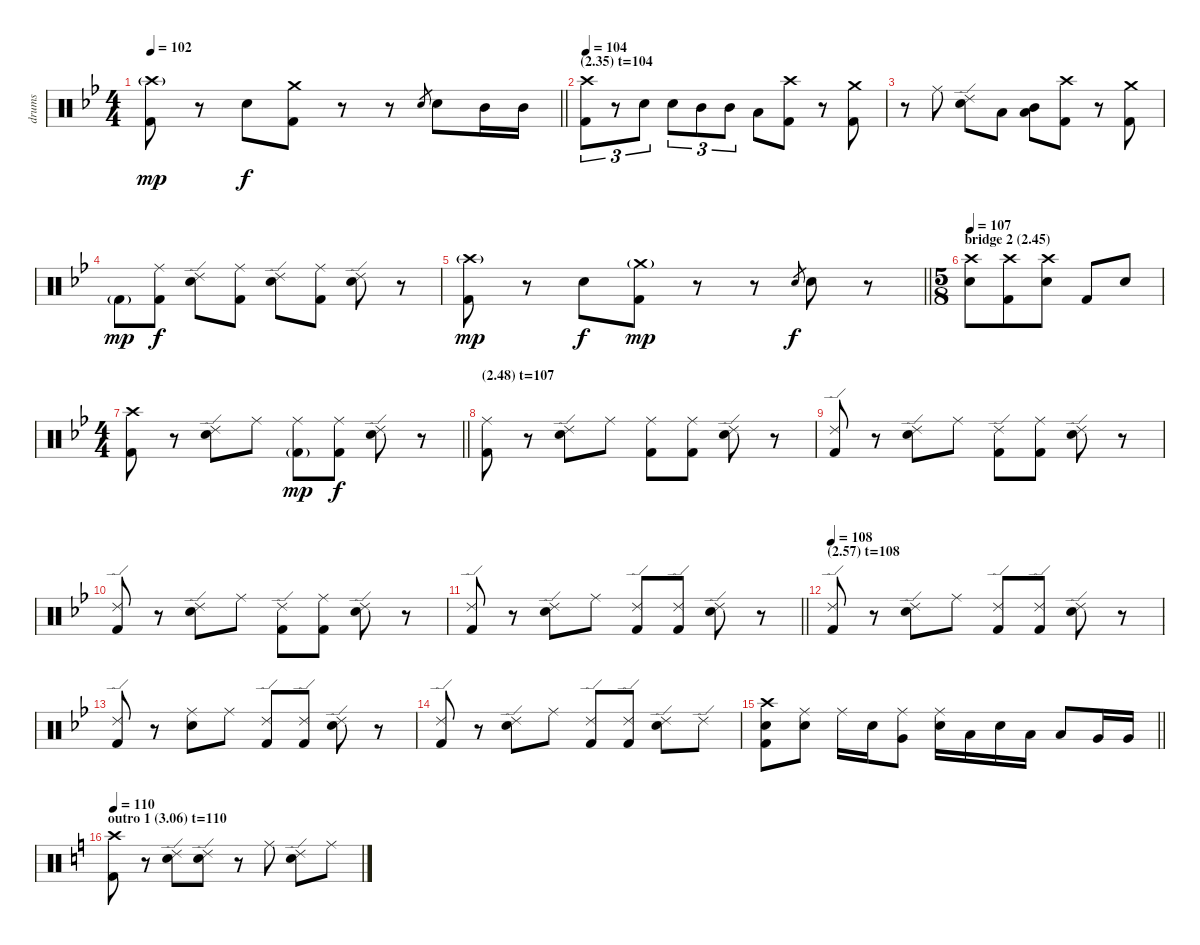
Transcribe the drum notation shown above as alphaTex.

\track ("drums" "drums") {instrument percussion}
\staff {score}
\articulation defaults
\ts (4 4)
\tempo 102
\clef neutral
\barLineRight lightlight
\ks bb
("Crash high (hit)"{g} "Kick (hit) 2").8{dy mp} r.8 "Electric Snare (hit)".8{dy f} ("Crash medium (hit)" "Kick (hit) 2").8 r.8 r.8 "Electric Snare (hit)".8{gr} "Electric Snare (hit)".8 "Mid Tom (hit)".16 "Mid Tom (hit)".16 |
\section ("" "(2.35) t=104")
\tempo 104
("Crash high (hit)" "Kick (hit) 2").8{tu (3 2)} r.8{tu (3 2)} "Electric Snare (hit)".8{tu (3 2)} "Electric Snare (hit)".8{tu (3 2)} "Mid Tom (hit)".8{tu (3 2)} "Mid Tom (hit)".8{tu (3 2)} "Low Tom (hit)".8 ("Crash high (hit)" "Kick (hit) 2").8 r.8 ("Crash medium (hit)" "Kick (hit) 2").8 |
r.8 "Ride (middle)".8 ("Ride (edge) 2" "Electric Snare (hit)").8 "Low Tom (hit)".8 ("Mid Tom (hit)" "Low Tom (hit)").8 ("Crash high (hit)" "Kick (hit) 2").8 r.8 ("Crash medium (hit)" "Kick (hit) 2").8 |
"Kick (hit) 2"{g}.8{dy mp} ("Ride (middle)" "Kick (hit) 2").8{dy f} ("Ride (edge) 2" "Electric Snare (hit)").8 ("Ride (middle)" "Kick (hit) 2").8 ("Ride (edge) 2" "Electric Snare (hit)").8 ("Ride (middle)" "Kick (hit) 2").8 ("Ride (edge) 2" "Electric Snare (hit)").8 r.8 |
\barLineRight lightlight
("Crash high (hit)"{g} "Kick (hit) 2").8{dy mp} r.8 "Electric Snare (hit)".8{dy f} ("Crash medium (hit)"{g} "Kick (hit) 2").8{dy mp} r.8 r.8 "Electric Snare (hit)".8{gr dy f} "Electric Snare (hit)".8 r.8 |
\ts (5 8)
\section ("" "bridge 2 (2.45)")
\tempo 107
("Crash high (hit)" "Electric Snare (hit)").8 ("Crash high (hit)" "Kick (hit) 2").8 ("Crash high (hit)" "Electric Snare (hit)").8 "Kick (hit) 2".8 "Electric Snare (hit)".8 |
\ts (4 4)
\barLineRight lightlight
("Crash high (hit)" "Kick (hit) 2").8 r.8 ("Ride (edge) 2" "Electric Snare (hit)").8 "Ride (middle)".8 ("Ride (middle)" "Kick (hit) 2"{g}).8{dy mp} ("Ride (middle)" "Kick (hit) 2").8{dy f} ("Ride (edge) 2" "Electric Snare (hit)").8 r.8 |
\section ("" "(2.48) t=107")
("Ride (middle)" "Kick (hit) 2").8 r.8 ("Ride (edge) 2" "Electric Snare (hit)").8 "Ride (middle)".8 ("Ride (middle)" "Kick (hit) 2").8 ("Ride (middle)" "Kick (hit) 2").8 ("Ride (edge) 2" "Electric Snare (hit)").8 r.8 |
("Ride (edge) 2" "Kick (hit) 2").8 r.8 ("Ride (edge) 2" "Electric Snare (hit)").8 "Ride (middle)".8 ("Ride (edge) 2" "Kick (hit) 2").8 ("Ride (middle)" "Kick (hit) 2").8 ("Ride (edge) 2" "Electric Snare (hit)").8 r.8 |
("Ride (edge) 2" "Kick (hit) 2").8 r.8 ("Ride (edge) 2" "Electric Snare (hit)").8 "Ride (middle)".8 ("Ride (edge) 2" "Kick (hit) 2").8 ("Ride (middle)" "Kick (hit) 2").8 ("Ride (edge) 2" "Electric Snare (hit)").8 r.8 |
\barLineRight lightlight
("Ride (edge) 2" "Kick (hit) 2").8 r.8 ("Ride (edge) 2" "Electric Snare (hit)").8 "Ride (middle)".8 ("Ride (edge) 2" "Kick (hit) 2").8 ("Ride (edge) 2" "Kick (hit) 2").8 ("Ride (edge) 2" "Electric Snare (hit)").8 r.8 |
\section ("" "(2.57) t=108")
\tempo 108
("Ride (edge) 2" "Kick (hit) 2").8 r.8 ("Ride (edge) 2" "Electric Snare (hit)").8 "Ride (middle)".8 ("Ride (edge) 2" "Kick (hit) 2").8 ("Ride (edge) 2" "Kick (hit) 2").8 ("Ride (edge) 2" "Electric Snare (hit)").8 r.8 |
("Ride (edge) 2" "Kick (hit) 2").8 r.8 ("Ride (middle)" "Electric Snare (hit)").8 "Ride (middle)".8 ("Ride (edge) 2" "Kick (hit) 2").8 ("Ride (edge) 2" "Kick (hit) 2").8 ("Ride (edge) 2" "Electric Snare (hit)").8 r.8 |
("Ride (edge) 2" "Kick (hit) 2").8 r.8 ("Ride (edge) 2" "Electric Snare (hit)").8 "Ride (middle)".8 ("Ride (edge) 2" "Kick (hit) 2").8 ("Ride (edge) 2" "Kick (hit) 2").8 ("Ride (edge) 2" "Electric Snare (hit)").8 "Ride (edge) 2".8 |
\barLineRight lightlight
("Crash high (hit)" "Electric Snare (hit)" "Kick (hit) 2").8 ("Ride (middle)" "Electric Snare (hit)").8 "Ride (middle)".16 "Electric Snare (hit)".16 ("Ride (middle)" "Very Low Tom (hit)").8 ("Ride (middle)" "Electric Snare (hit)").16 "Low Tom (hit)".16 "Electric Snare (hit)".16 "Low Tom (hit)".16 "Low Tom (hit)".8 "Very Low Tom (hit)".16 "Very Low Tom (hit)".16 |
\section ("" "outro 1 (3.06) t=110")
\tempo 110
\ks c
("Crash high (hit)" "Kick (hit) 2").8 r.8 ("Ride (edge) 2" "Electric Snare (hit)").8 ("Ride (edge) 2" "Electric Snare (hit)").8 r.8 "Ride (middle)".8 ("Ride (edge) 2" "Electric Snare (hit)").8 "Ride (middle)".8
